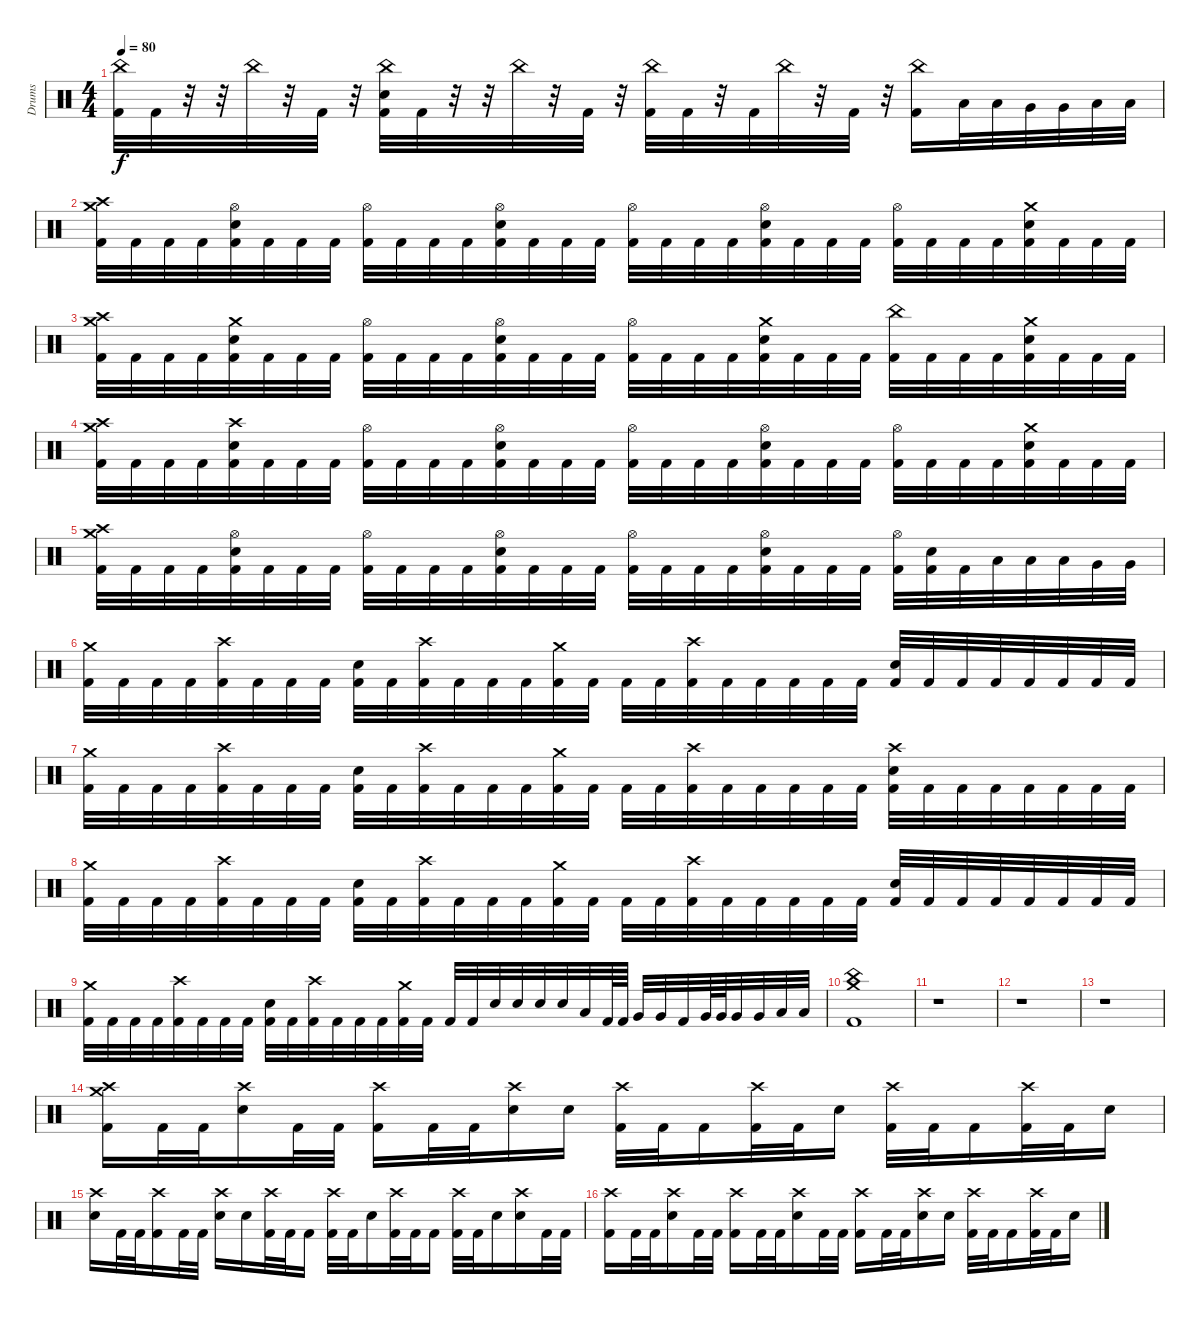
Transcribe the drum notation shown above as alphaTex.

\track ("Drums" "Drums") {instrument percussion}
\staff {score}
\articulation defaults
\ts (4 4)
\tempo 80
\clef neutral
\ks c
("China (hit)" "Kick (hit) 2").32{dy f} "Kick (hit) 2".32 r.32 r.32 "China (hit)".32 r.32 "Kick (hit) 2".32 r.32 ("China (hit)" "Snare (hit) 2" "Kick (hit) 2").32 "Kick (hit) 2".32 r.32 r.32 "China (hit)".32 r.32 "Kick (hit) 2".32 r.32 ("China (hit)" "Kick (hit) 2").32 "Kick (hit) 2".32 r.32 "Kick (hit) 2".32 "China (hit)".32 r.32 "Kick (hit) 2".32 r.32 ("China (hit)" "Kick (hit) 2").16 "Low Tom (hit)".32 "Low Tom (hit)".32 "Very Low Tom (hit)".32 "Very Low Tom (hit)".32 "Low Floor Tom (hit)".32 "Low Floor Tom (hit)".32 |
("Crash medium (hit)" "Crash high (hit)" "Kick (hit) 2").32 "Kick (hit) 2".32 "Kick (hit) 2".32 "Kick (hit) 2".32 ("Hi-Hat (open)" "Snare (hit) 2" "Kick (hit) 2").32 "Kick (hit) 2".32 "Kick (hit) 2".32 "Kick (hit) 2".32 ("Hi-Hat (open)" "Kick (hit) 2").32 "Kick (hit) 2".32 "Kick (hit) 2".32 "Kick (hit) 2".32 ("Hi-Hat (open)" "Snare (hit) 2" "Kick (hit) 2").32 "Kick (hit) 2".32 "Kick (hit) 2".32 "Kick (hit) 2".32 ("Hi-Hat (open)" "Kick (hit) 2").32 "Kick (hit) 2".32 "Kick (hit) 2".32 "Kick (hit) 2".32 ("Hi-Hat (open)" "Snare (hit) 2" "Kick (hit) 2").32 "Kick (hit) 2".32 "Kick (hit) 2".32 "Kick (hit) 2".32 ("Hi-Hat (open)" "Kick (hit) 2").32 "Kick (hit) 2".32 "Kick (hit) 2".32 "Kick (hit) 2".32 ("Crash medium (hit)" "Snare (hit) 2" "Kick (hit) 2").32 "Kick (hit) 2".32 "Kick (hit) 2".32 "Kick (hit) 2".32 |
("Crash medium (hit)" "Crash high (hit)" "Kick (hit) 2").32 "Kick (hit) 2".32 "Kick (hit) 2".32 "Kick (hit) 2".32 ("Crash medium (hit)" "Snare (hit) 2" "Kick (hit) 2").32 "Kick (hit) 2".32 "Kick (hit) 2".32 "Kick (hit) 2".32 ("Hi-Hat (open)" "Kick (hit) 2").32 "Kick (hit) 2".32 "Kick (hit) 2".32 "Kick (hit) 2".32 ("Hi-Hat (open)" "Snare (hit) 2" "Kick (hit) 2").32 "Kick (hit) 2".32 "Kick (hit) 2".32 "Kick (hit) 2".32 ("Hi-Hat (open)" "Kick (hit) 2").32 "Kick (hit) 2".32 "Kick (hit) 2".32 "Kick (hit) 2".32 ("Crash medium (hit)" "Snare (hit) 2" "Kick (hit) 2").32 "Kick (hit) 2".32 "Kick (hit) 2".32 "Kick (hit) 2".32 ("China (hit)" "Kick (hit) 2").32 "Kick (hit) 2".32 "Kick (hit) 2".32 "Kick (hit) 2".32 ("Crash medium (hit)" "Snare (hit) 2" "Kick (hit) 2").32 "Kick (hit) 2".32 "Kick (hit) 2".32 "Kick (hit) 2".32 |
("Crash medium (hit)" "Crash high (hit)" "Kick (hit) 2").32 "Kick (hit) 2".32 "Kick (hit) 2".32 "Kick (hit) 2".32 ("Crash high (hit)" "Snare (hit) 2" "Kick (hit) 2").32 "Kick (hit) 2".32 "Kick (hit) 2".32 "Kick (hit) 2".32 ("Hi-Hat (open)" "Kick (hit) 2").32 "Kick (hit) 2".32 "Kick (hit) 2".32 "Kick (hit) 2".32 ("Hi-Hat (open)" "Snare (hit) 2" "Kick (hit) 2").32 "Kick (hit) 2".32 "Kick (hit) 2".32 "Kick (hit) 2".32 ("Hi-Hat (open)" "Kick (hit) 2").32 "Kick (hit) 2".32 "Kick (hit) 2".32 "Kick (hit) 2".32 ("Hi-Hat (open)" "Snare (hit) 2" "Kick (hit) 2").32 "Kick (hit) 2".32 "Kick (hit) 2".32 "Kick (hit) 2".32 ("Hi-Hat (open)" "Kick (hit) 2").32 "Kick (hit) 2".32 "Kick (hit) 2".32 "Kick (hit) 2".32 ("Crash medium (hit)" "Snare (hit) 2" "Kick (hit) 2").32 "Kick (hit) 2".32 "Kick (hit) 2".32 "Kick (hit) 2".32 |
("Crash medium (hit)" "Crash high (hit)" "Kick (hit) 2").32 "Kick (hit) 2".32 "Kick (hit) 2".32 "Kick (hit) 2".32 ("Hi-Hat (open)" "Snare (hit) 2" "Kick (hit) 2").32 "Kick (hit) 2".32 "Kick (hit) 2".32 "Kick (hit) 2".32 ("Hi-Hat (open)" "Kick (hit) 2").32 "Kick (hit) 2".32 "Kick (hit) 2".32 "Kick (hit) 2".32 ("Hi-Hat (open)" "Snare (hit) 2" "Kick (hit) 2").32 "Kick (hit) 2".32 "Kick (hit) 2".32 "Kick (hit) 2".32 ("Hi-Hat (open)" "Kick (hit) 2").32 "Kick (hit) 2".32 "Kick (hit) 2".32 "Kick (hit) 2".32 ("Hi-Hat (open)" "Snare (hit) 2" "Kick (hit) 2").32 "Kick (hit) 2".32 "Kick (hit) 2".32 "Kick (hit) 2".32 ("Hi-Hat (open)" "Kick (hit) 2").32 ("Snare (hit) 2" "Kick (hit) 2").32 "Kick (hit) 2".32 "Low Tom (hit)".32 "Low Tom (hit)".32 "Low Tom (hit)".32 "Very Low Tom (hit)".32 "Very Low Tom (hit)".32 |
("Crash medium (hit)" "Kick (hit) 2").32 "Kick (hit) 2".32 "Kick (hit) 2".32 "Kick (hit) 2".32 ("Crash high (hit)" "Kick (hit) 2").32 "Kick (hit) 2".32 "Kick (hit) 2".32 "Kick (hit) 2".32 ("Snare (hit) 2" "Kick (hit) 2").32 "Kick (hit) 2".32 ("Crash high (hit)" "Kick (hit) 2").32 "Kick (hit) 2".32 "Kick (hit) 2".32 "Kick (hit) 2".32 ("Crash medium (hit)" "Kick (hit) 2").32 "Kick (hit) 2".32 "Kick (hit) 2".32 "Kick (hit) 2".32 ("Crash high (hit)" "Kick (hit) 2").32 "Kick (hit) 2".32 "Kick (hit) 2".32 "Kick (hit) 2".32 "Kick (hit) 2".32 "Kick (hit) 2".32 ("Snare (hit) 2" "Kick (hit) 2").32 "Kick (hit) 2".32 "Kick (hit) 2".32 "Kick (hit) 2".32 "Kick (hit) 2".32 "Kick (hit) 2".32 "Kick (hit) 2".32 "Kick (hit) 2".32 |
("Crash medium (hit)" "Kick (hit) 2").32 "Kick (hit) 2".32 "Kick (hit) 2".32 "Kick (hit) 2".32 ("Crash high (hit)" "Kick (hit) 2").32 "Kick (hit) 2".32 "Kick (hit) 2".32 "Kick (hit) 2".32 ("Snare (hit) 2" "Kick (hit) 2").32 "Kick (hit) 2".32 ("Crash high (hit)" "Kick (hit) 2").32 "Kick (hit) 2".32 "Kick (hit) 2".32 "Kick (hit) 2".32 ("Crash medium (hit)" "Kick (hit) 2").32 "Kick (hit) 2".32 "Kick (hit) 2".32 "Kick (hit) 2".32 ("Crash high (hit)" "Kick (hit) 2").32 "Kick (hit) 2".32 "Kick (hit) 2".32 "Kick (hit) 2".32 "Kick (hit) 2".32 "Kick (hit) 2".32 ("Crash high (hit)" "Snare (hit) 2" "Kick (hit) 2").32 "Kick (hit) 2".32 "Kick (hit) 2".32 "Kick (hit) 2".32 "Kick (hit) 2".32 "Kick (hit) 2".32 "Kick (hit) 2".32 "Kick (hit) 2".32 |
("Crash medium (hit)" "Kick (hit) 2").32 "Kick (hit) 2".32 "Kick (hit) 2".32 "Kick (hit) 2".32 ("Crash high (hit)" "Kick (hit) 2").32 "Kick (hit) 2".32 "Kick (hit) 2".32 "Kick (hit) 2".32 ("Snare (hit) 2" "Kick (hit) 2").32 "Kick (hit) 2".32 ("Crash high (hit)" "Kick (hit) 2").32 "Kick (hit) 2".32 "Kick (hit) 2".32 "Kick (hit) 2".32 ("Crash medium (hit)" "Kick (hit) 2").32 "Kick (hit) 2".32 "Kick (hit) 2".32 "Kick (hit) 2".32 ("Crash high (hit)" "Kick (hit) 2").32 "Kick (hit) 2".32 "Kick (hit) 2".32 "Kick (hit) 2".32 "Kick (hit) 2".32 "Kick (hit) 2".32 ("Snare (hit) 2" "Kick (hit) 2").32 "Kick (hit) 2".32 "Kick (hit) 2".32 "Kick (hit) 2".32 "Kick (hit) 2".32 "Kick (hit) 2".32 "Kick (hit) 2".32 "Kick (hit) 2".32 |
("Crash medium (hit)" "Kick (hit) 2").32 "Kick (hit) 2".32 "Kick (hit) 2".32 "Kick (hit) 2".32 ("Crash high (hit)" "Kick (hit) 2").32 "Kick (hit) 2".32 "Kick (hit) 2".32 "Kick (hit) 2".32 ("Snare (hit) 2" "Kick (hit) 2").32 "Kick (hit) 2".32 ("Crash high (hit)" "Kick (hit) 2").32 "Kick (hit) 2".32 "Kick (hit) 2".32 "Kick (hit) 2".32 ("Crash medium (hit)" "Kick (hit) 2").32 "Kick (hit) 2".32 "Kick (hit) 2".32 "Kick (hit) 2".32 "Snare (hit) 2".32 "Snare (hit) 2".32 "Snare (hit) 2".32 "Snare (hit) 2".32 "Low Tom (hit)".32 "Kick (hit) 2".64 "Kick (hit) 2".64 "Very Low Tom (hit)".32 "Very Low Tom (hit)".32 "Kick (hit) 2".32 "Very Low Tom (hit)".64 "Very Low Tom (hit)".64 "Very Low Tom (hit)".32 "Very Low Tom (hit)".32 "Low Floor Tom (hit)".32 "Low Floor Tom (hit)".32 |
("China (hit)" "Crash medium (hit)" "Kick (hit) 2").1 |
r.1 |
r.1 |
r.1 |
("Crash medium (hit)" "Crash high (hit)" "Kick (hit) 2").16 "Kick (hit) 2".32 "Kick (hit) 2".32 ("Crash high (hit)" "Snare (hit) 2").16 "Kick (hit) 2".32 "Kick (hit) 2".32 ("Crash high (hit)" "Kick (hit) 2").16 "Kick (hit) 2".32 "Kick (hit) 2".32 ("Crash high (hit)" "Snare (hit) 2").16 "Snare (hit) 2".16 ("Crash high (hit)" "Kick (hit) 2").32 "Kick (hit) 2".32 "Kick (hit) 2".16 ("Crash high (hit)" "Kick (hit) 2").32 "Kick (hit) 2".32 "Snare (hit) 2".16 ("Crash high (hit)" "Kick (hit) 2").32 "Kick (hit) 2".32 "Kick (hit) 2".16 ("Crash high (hit)" "Kick (hit) 2").32 "Kick (hit) 2".32 "Snare (hit) 2".16 |
("Crash high (hit)" "Snare (hit) 2").16 "Kick (hit) 2".32 "Kick (hit) 2".32 ("Crash high (hit)" "Kick (hit) 2").16 "Kick (hit) 2".32 "Kick (hit) 2".32 ("Crash high (hit)" "Snare (hit) 2").16 "Snare (hit) 2".16 ("Crash high (hit)" "Kick (hit) 2").32 "Kick (hit) 2".32 "Kick (hit) 2".16 ("Crash high (hit)" "Kick (hit) 2").32 "Kick (hit) 2".32 "Snare (hit) 2".16 ("Crash high (hit)" "Kick (hit) 2").32 "Kick (hit) 2".32 "Kick (hit) 2".16 ("Crash high (hit)" "Kick (hit) 2").32 "Kick (hit) 2".32 "Snare (hit) 2".16 ("Crash high (hit)" "Snare (hit) 2").16 "Kick (hit) 2".32 "Kick (hit) 2".32 |
("Crash high (hit)" "Kick (hit) 2").16 "Kick (hit) 2".32 "Kick (hit) 2".32 ("Crash high (hit)" "Snare (hit) 2").16 "Kick (hit) 2".32 "Kick (hit) 2".32 ("Crash high (hit)" "Kick (hit) 2").16 "Kick (hit) 2".32 "Kick (hit) 2".32 ("Crash high (hit)" "Snare (hit) 2").16 "Kick (hit) 2".32 "Kick (hit) 2".32 ("Crash high (hit)" "Kick (hit) 2").16 "Kick (hit) 2".32 "Kick (hit) 2".32 ("Crash high (hit)" "Snare (hit) 2").16 "Snare (hit) 2".16 ("Crash high (hit)" "Kick (hit) 2").32 "Kick (hit) 2".32 "Kick (hit) 2".16 ("Crash high (hit)" "Kick (hit) 2").32 "Kick (hit) 2".32 "Snare (hit) 2".16
